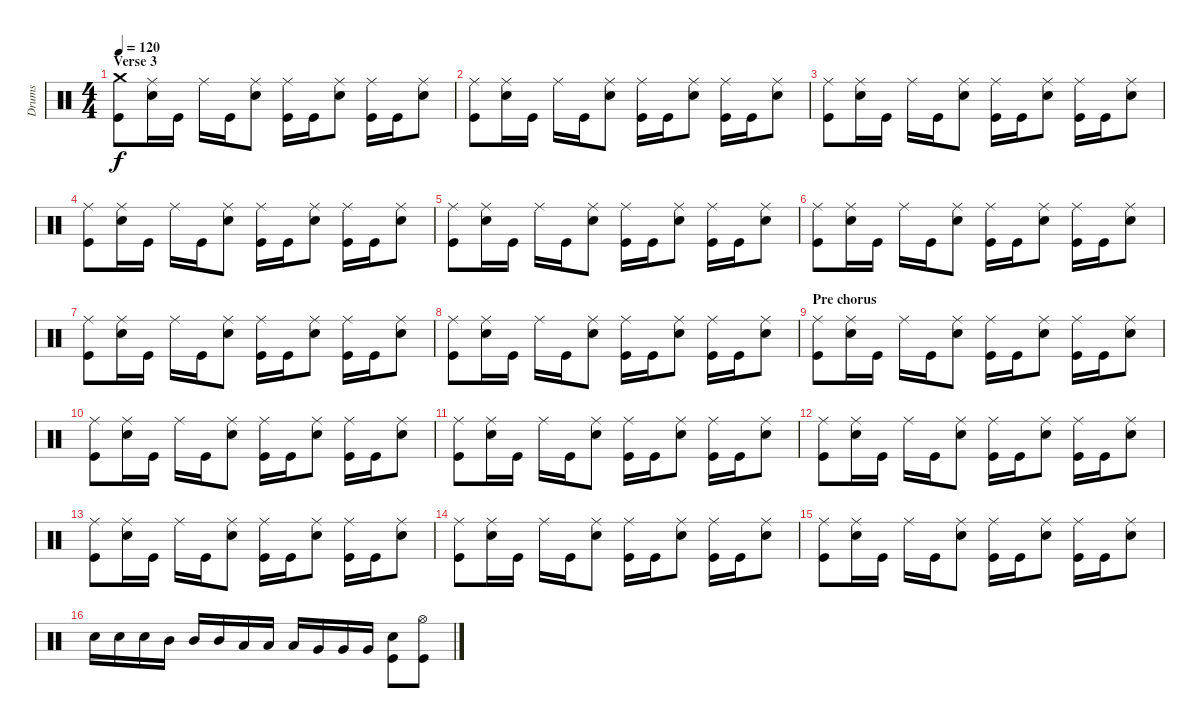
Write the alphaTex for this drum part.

\track ("Drums" "Drums") {instrument percussion}
\staff {score}
\articulation defaults
\ts (4 4)
\section ("" "Verse 3")
\tempo 120
\clef neutral
\ks c
("Crash medium (hit)" "Kick (hit)").8{dy f} ("Ride (middle)" "Snare (hit) 2").16 "Kick (hit)".16 "Ride (middle)".16 "Kick (hit)".16 ("Ride (middle)" "Snare (hit) 2").8 ("Ride (middle)" "Kick (hit)").16 "Kick (hit)".16 ("Ride (middle)" "Snare (hit) 2").8 ("Ride (middle)" "Kick (hit)").16 "Kick (hit)".16 ("Ride (middle)" "Snare (hit) 2").8 |
("Ride (middle)" "Kick (hit)").8 ("Ride (middle)" "Snare (hit) 2").16 "Kick (hit)".16 "Ride (middle)".16 "Kick (hit)".16 ("Ride (middle)" "Snare (hit) 2").8 ("Ride (middle)" "Kick (hit)").16 "Kick (hit)".16 ("Ride (middle)" "Snare (hit) 2").8 ("Ride (middle)" "Kick (hit)").16 "Kick (hit)".16 ("Ride (middle)" "Snare (hit) 2").8 |
("Ride (middle)" "Kick (hit)").8 ("Ride (middle)" "Snare (hit) 2").16 "Kick (hit)".16 "Ride (middle)".16 "Kick (hit)".16 ("Ride (middle)" "Snare (hit) 2").8 ("Ride (middle)" "Kick (hit)").16 "Kick (hit)".16 ("Ride (middle)" "Snare (hit) 2").8 ("Ride (middle)" "Kick (hit)").16 "Kick (hit)".16 ("Ride (middle)" "Snare (hit) 2").8 |
("Ride (middle)" "Kick (hit)").8 ("Ride (middle)" "Snare (hit) 2").16 "Kick (hit)".16 "Ride (middle)".16 "Kick (hit)".16 ("Ride (middle)" "Snare (hit) 2").8 ("Ride (middle)" "Kick (hit)").16 "Kick (hit)".16 ("Ride (middle)" "Snare (hit) 2").8 ("Ride (middle)" "Kick (hit)").16 "Kick (hit)".16 ("Ride (middle)" "Snare (hit) 2").8 |
("Ride (middle)" "Kick (hit)").8 ("Ride (middle)" "Snare (hit) 2").16 "Kick (hit)".16 "Ride (middle)".16 "Kick (hit)".16 ("Ride (middle)" "Snare (hit) 2").8 ("Ride (middle)" "Kick (hit)").16 "Kick (hit)".16 ("Ride (middle)" "Snare (hit) 2").8 ("Ride (middle)" "Kick (hit)").16 "Kick (hit)".16 ("Ride (middle)" "Snare (hit) 2").8 |
("Ride (middle)" "Kick (hit)").8 ("Ride (middle)" "Snare (hit) 2").16 "Kick (hit)".16 "Ride (middle)".16 "Kick (hit)".16 ("Ride (middle)" "Snare (hit) 2").8 ("Ride (middle)" "Kick (hit)").16 "Kick (hit)".16 ("Ride (middle)" "Snare (hit) 2").8 ("Ride (middle)" "Kick (hit)").16 "Kick (hit)".16 ("Ride (middle)" "Snare (hit) 2").8 |
("Ride (middle)" "Kick (hit)").8 ("Ride (middle)" "Snare (hit) 2").16 "Kick (hit)".16 "Ride (middle)".16 "Kick (hit)".16 ("Ride (middle)" "Snare (hit) 2").8 ("Ride (middle)" "Kick (hit)").16 "Kick (hit)".16 ("Ride (middle)" "Snare (hit) 2").8 ("Ride (middle)" "Kick (hit)").16 "Kick (hit)".16 ("Ride (middle)" "Snare (hit) 2").8 |
("Ride (middle)" "Kick (hit)").8 ("Ride (middle)" "Snare (hit) 2").16 "Kick (hit)".16 "Ride (middle)".16 "Kick (hit)".16 ("Ride (middle)" "Snare (hit) 2").8 ("Ride (middle)" "Kick (hit)").16 "Kick (hit)".16 ("Ride (middle)" "Snare (hit) 2").8 ("Ride (middle)" "Kick (hit)").16 "Kick (hit)".16 ("Ride (middle)" "Snare (hit) 2").8 |
\section ("" "Pre chorus")
("Ride (middle)" "Kick (hit)").8 ("Ride (middle)" "Snare (hit) 2").16 "Kick (hit)".16 "Ride (middle)".16 "Kick (hit)".16 ("Ride (middle)" "Snare (hit) 2").8 ("Ride (middle)" "Kick (hit)").16 "Kick (hit)".16 ("Ride (middle)" "Snare (hit) 2").8 ("Ride (middle)" "Kick (hit)").16 "Kick (hit)".16 ("Ride (middle)" "Snare (hit) 2").8 |
("Ride (middle)" "Kick (hit)").8 ("Ride (middle)" "Snare (hit) 2").16 "Kick (hit)".16 "Ride (middle)".16 "Kick (hit)".16 ("Ride (middle)" "Snare (hit) 2").8 ("Ride (middle)" "Kick (hit)").16 "Kick (hit)".16 ("Ride (middle)" "Snare (hit) 2").8 ("Ride (middle)" "Kick (hit)").16 "Kick (hit)".16 ("Ride (middle)" "Snare (hit) 2").8 |
("Ride (middle)" "Kick (hit)").8 ("Ride (middle)" "Snare (hit) 2").16 "Kick (hit)".16 "Ride (middle)".16 "Kick (hit)".16 ("Ride (middle)" "Snare (hit) 2").8 ("Ride (middle)" "Kick (hit)").16 "Kick (hit)".16 ("Ride (middle)" "Snare (hit) 2").8 ("Ride (middle)" "Kick (hit)").16 "Kick (hit)".16 ("Ride (middle)" "Snare (hit) 2").8 |
("Ride (middle)" "Kick (hit)").8 ("Ride (middle)" "Snare (hit) 2").16 "Kick (hit)".16 "Ride (middle)".16 "Kick (hit)".16 ("Ride (middle)" "Snare (hit) 2").8 ("Ride (middle)" "Kick (hit)").16 "Kick (hit)".16 ("Ride (middle)" "Snare (hit) 2").8 ("Ride (middle)" "Kick (hit)").16 "Kick (hit)".16 ("Ride (middle)" "Snare (hit) 2").8 |
("Ride (middle)" "Kick (hit)").8 ("Ride (middle)" "Snare (hit) 2").16 "Kick (hit)".16 "Ride (middle)".16 "Kick (hit)".16 ("Ride (middle)" "Snare (hit) 2").8 ("Ride (middle)" "Kick (hit)").16 "Kick (hit)".16 ("Ride (middle)" "Snare (hit) 2").8 ("Ride (middle)" "Kick (hit)").16 "Kick (hit)".16 ("Ride (middle)" "Snare (hit) 2").8 |
("Ride (middle)" "Kick (hit)").8 ("Ride (middle)" "Snare (hit) 2").16 "Kick (hit)".16 "Ride (middle)".16 "Kick (hit)".16 ("Ride (middle)" "Snare (hit) 2").8 ("Ride (middle)" "Kick (hit)").16 "Kick (hit)".16 ("Ride (middle)" "Snare (hit) 2").8 ("Ride (middle)" "Kick (hit)").16 "Kick (hit)".16 ("Ride (middle)" "Snare (hit) 2").8 |
("Ride (middle)" "Kick (hit)").8 ("Ride (middle)" "Snare (hit) 2").16 "Kick (hit)".16 "Ride (middle)".16 "Kick (hit)".16 ("Ride (middle)" "Snare (hit) 2").8 ("Ride (middle)" "Kick (hit)").16 "Kick (hit)".16 ("Ride (middle)" "Snare (hit) 2").8 ("Ride (middle)" "Kick (hit)").16 "Kick (hit)".16 ("Ride (middle)" "Snare (hit) 2").8 |
"Snare (hit) 2".16 "Snare (hit) 2".16 "Snare (hit) 2".16 "Mid Tom (hit)".16 "Mid Tom (hit)".16 "Mid Tom (hit)".16 "Low Tom (hit)".16 "Low Tom (hit)".16 "Low Tom (hit)".16 "Very Low Tom (hit)".16 "Very Low Tom (hit)".16 "Very Low Tom (hit)".16 ("Snare (hit) 2" "Kick (hit)").8 ("Hi-Hat (open)" "Kick (hit)").8
